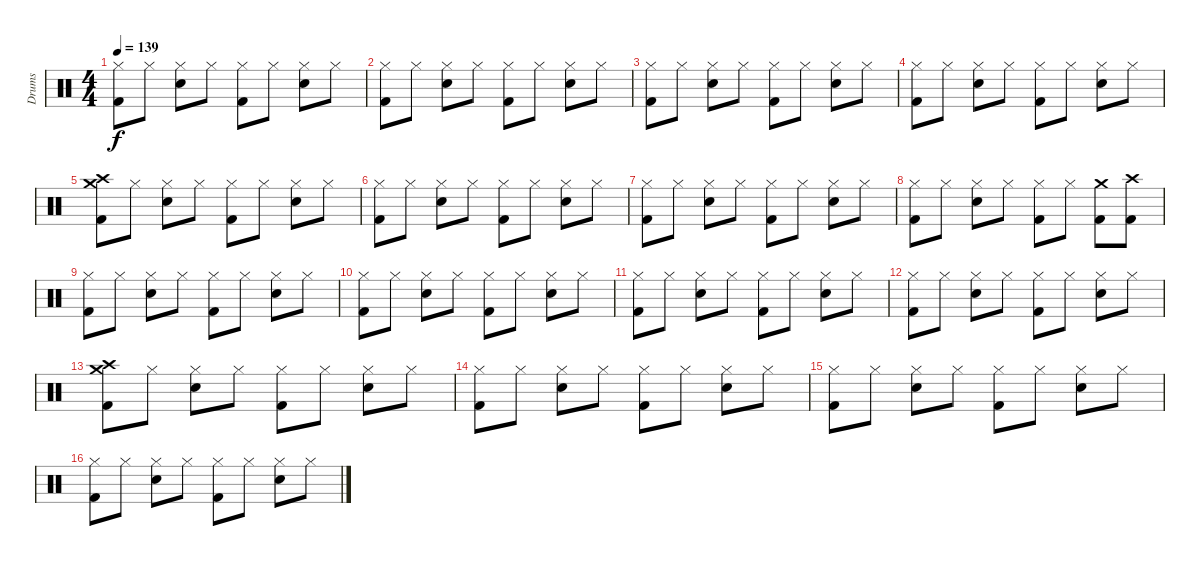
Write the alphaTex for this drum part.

\track ("Drums" "Drums") {instrument percussion}
\staff {score}
\articulation defaults
\ts (4 4)
\tempo 139
\clef neutral
\ks c
("Hi-Hat (closed)" "Kick (hit) 2").8{dy f} "Hi-Hat (closed)".8 ("Hi-Hat (closed)" "Snare (hit) 2").8 "Hi-Hat (closed)".8 ("Hi-Hat (closed)" "Kick (hit) 2").8 "Hi-Hat (closed)".8 ("Hi-Hat (closed)" "Snare (hit) 2").8 "Hi-Hat (closed)".8 |
("Hi-Hat (closed)" "Kick (hit) 2").8 "Hi-Hat (closed)".8 ("Hi-Hat (closed)" "Snare (hit) 2").8 "Hi-Hat (closed)".8 ("Hi-Hat (closed)" "Kick (hit) 2").8 "Hi-Hat (closed)".8 ("Hi-Hat (closed)" "Snare (hit) 2").8 "Hi-Hat (closed)".8 |
("Hi-Hat (closed)" "Kick (hit) 2").8 "Hi-Hat (closed)".8 ("Hi-Hat (closed)" "Snare (hit) 2").8 "Hi-Hat (closed)".8 ("Hi-Hat (closed)" "Kick (hit) 2").8 "Hi-Hat (closed)".8 ("Hi-Hat (closed)" "Snare (hit) 2").8 "Hi-Hat (closed)".8 |
("Hi-Hat (closed)" "Kick (hit) 2").8 "Hi-Hat (closed)".8 ("Hi-Hat (closed)" "Snare (hit) 2").8 "Hi-Hat (closed)".8 ("Hi-Hat (closed)" "Kick (hit) 2").8 "Hi-Hat (closed)".8 ("Hi-Hat (closed)" "Snare (hit) 2").8 "Hi-Hat (closed)".8 |
("Crash medium (hit)" "Crash high (hit)" "Kick (hit) 2").8 "Hi-Hat (closed)".8 ("Hi-Hat (closed)" "Snare (hit) 2").8 "Hi-Hat (closed)".8 ("Hi-Hat (closed)" "Kick (hit) 2").8 "Hi-Hat (closed)".8 ("Hi-Hat (closed)" "Snare (hit) 2").8 "Hi-Hat (closed)".8 |
("Hi-Hat (closed)" "Kick (hit) 2").8 "Hi-Hat (closed)".8 ("Hi-Hat (closed)" "Snare (hit) 2").8 "Hi-Hat (closed)".8 ("Hi-Hat (closed)" "Kick (hit) 2").8 "Hi-Hat (closed)".8 ("Hi-Hat (closed)" "Snare (hit) 2").8 "Hi-Hat (closed)".8 |
("Hi-Hat (closed)" "Kick (hit) 2").8 "Hi-Hat (closed)".8 ("Hi-Hat (closed)" "Snare (hit) 2").8 "Hi-Hat (closed)".8 ("Hi-Hat (closed)" "Kick (hit) 2").8 "Hi-Hat (closed)".8 ("Hi-Hat (closed)" "Snare (hit) 2").8 "Hi-Hat (closed)".8 |
("Hi-Hat (closed)" "Kick (hit) 2").8 "Hi-Hat (closed)".8 ("Hi-Hat (closed)" "Snare (hit) 2").8 "Hi-Hat (closed)".8 ("Hi-Hat (closed)" "Kick (hit) 2").8 "Hi-Hat (closed)".8 ("Crash medium (hit)" "Kick (hit) 2").8 ("Crash high (hit)" "Kick (hit) 2").8 |
("Hi-Hat (closed)" "Kick (hit) 2").8 "Hi-Hat (closed)".8 ("Hi-Hat (closed)" "Snare (hit) 2").8 "Hi-Hat (closed)".8 ("Hi-Hat (closed)" "Kick (hit) 2").8 "Hi-Hat (closed)".8 ("Hi-Hat (closed)" "Snare (hit) 2").8 "Hi-Hat (closed)".8 |
("Hi-Hat (closed)" "Kick (hit) 2").8 "Hi-Hat (closed)".8 ("Hi-Hat (closed)" "Snare (hit) 2").8 "Hi-Hat (closed)".8 ("Hi-Hat (closed)" "Kick (hit) 2").8 "Hi-Hat (closed)".8 ("Hi-Hat (closed)" "Snare (hit) 2").8 "Hi-Hat (closed)".8 |
("Hi-Hat (closed)" "Kick (hit) 2").8 "Hi-Hat (closed)".8 ("Hi-Hat (closed)" "Snare (hit) 2").8 "Hi-Hat (closed)".8 ("Hi-Hat (closed)" "Kick (hit) 2").8 "Hi-Hat (closed)".8 ("Hi-Hat (closed)" "Snare (hit) 2").8 "Hi-Hat (closed)".8 |
("Hi-Hat (closed)" "Kick (hit) 2").8 "Hi-Hat (closed)".8 ("Hi-Hat (closed)" "Snare (hit) 2").8 "Hi-Hat (closed)".8 ("Hi-Hat (closed)" "Kick (hit) 2").8 "Hi-Hat (closed)".8 ("Hi-Hat (closed)" "Snare (hit) 2").8 "Hi-Hat (closed)".8 |
("Crash medium (hit)" "Crash high (hit)" "Kick (hit) 2").8 "Hi-Hat (closed)".8 ("Hi-Hat (closed)" "Snare (hit) 2").8 "Hi-Hat (closed)".8 ("Hi-Hat (closed)" "Kick (hit) 2").8 "Hi-Hat (closed)".8 ("Hi-Hat (closed)" "Snare (hit) 2").8 "Hi-Hat (closed)".8 |
("Hi-Hat (closed)" "Kick (hit) 2").8 "Hi-Hat (closed)".8 ("Hi-Hat (closed)" "Snare (hit) 2").8 "Hi-Hat (closed)".8 ("Hi-Hat (closed)" "Kick (hit) 2").8 "Hi-Hat (closed)".8 ("Hi-Hat (closed)" "Snare (hit) 2").8 "Hi-Hat (closed)".8 |
("Hi-Hat (closed)" "Kick (hit) 2").8 "Hi-Hat (closed)".8 ("Hi-Hat (closed)" "Snare (hit) 2").8 "Hi-Hat (closed)".8 ("Hi-Hat (closed)" "Kick (hit) 2").8 "Hi-Hat (closed)".8 ("Hi-Hat (closed)" "Snare (hit) 2").8 "Hi-Hat (closed)".8 |
("Hi-Hat (closed)" "Kick (hit) 2").8 "Hi-Hat (closed)".8 ("Hi-Hat (closed)" "Snare (hit) 2").8 "Hi-Hat (closed)".8 ("Hi-Hat (closed)" "Kick (hit) 2").8 "Hi-Hat (closed)".8 ("Hi-Hat (closed)" "Snare (hit) 2").8 "Hi-Hat (closed)".8
